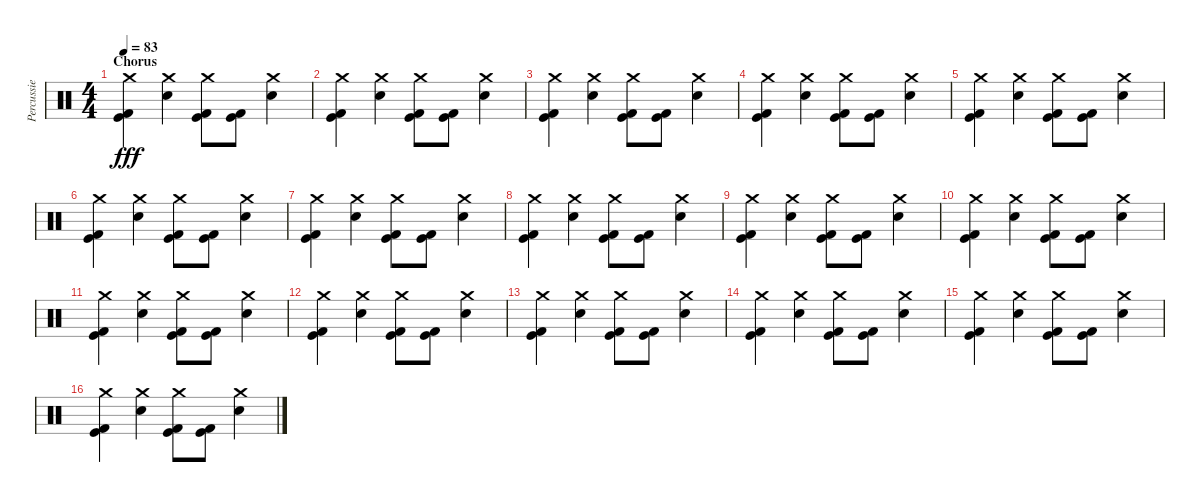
\track ("Percussie" "Percussie") {instrument percussion}
\staff {score}
\articulation defaults
\ts (4 4)
\section ("" "Chorus")
\tempo 83
\clef neutral
\ks c
("Crash medium (hit)" "Kick (hit)" "Kick (hit) 2").4{dy fff} ("Crash medium (hit)" "Snare (hit) 2").4 ("Crash medium (hit)" "Kick (hit)" "Kick (hit) 2").8 ("Kick (hit)" "Kick (hit) 2").8 ("Crash medium (hit)" "Snare (hit) 2").4 |
("Crash medium (hit)" "Kick (hit)" "Kick (hit) 2").4 ("Crash medium (hit)" "Snare (hit) 2").4 ("Crash medium (hit)" "Kick (hit)" "Kick (hit) 2").8 ("Kick (hit)" "Kick (hit) 2").8 ("Crash medium (hit)" "Snare (hit) 2").4 |
("Crash medium (hit)" "Kick (hit)" "Kick (hit) 2").4 ("Crash medium (hit)" "Snare (hit) 2").4 ("Crash medium (hit)" "Kick (hit)" "Kick (hit) 2").8 ("Kick (hit)" "Kick (hit) 2").8 ("Crash medium (hit)" "Snare (hit) 2").4 |
("Crash medium (hit)" "Kick (hit)" "Kick (hit) 2").4 ("Crash medium (hit)" "Snare (hit) 2").4 ("Crash medium (hit)" "Kick (hit)" "Kick (hit) 2").8 ("Kick (hit)" "Kick (hit) 2").8 ("Crash medium (hit)" "Snare (hit) 2").4 |
("Crash medium (hit)" "Kick (hit)" "Kick (hit) 2").4 ("Crash medium (hit)" "Snare (hit) 2").4 ("Crash medium (hit)" "Kick (hit)" "Kick (hit) 2").8 ("Kick (hit)" "Kick (hit) 2").8 ("Crash medium (hit)" "Snare (hit) 2").4 |
("Crash medium (hit)" "Kick (hit)" "Kick (hit) 2").4 ("Crash medium (hit)" "Snare (hit) 2").4 ("Crash medium (hit)" "Kick (hit)" "Kick (hit) 2").8 ("Kick (hit)" "Kick (hit) 2").8 ("Crash medium (hit)" "Snare (hit) 2").4 |
("Crash medium (hit)" "Kick (hit)" "Kick (hit) 2").4 ("Crash medium (hit)" "Snare (hit) 2").4 ("Crash medium (hit)" "Kick (hit)" "Kick (hit) 2").8 ("Kick (hit)" "Kick (hit) 2").8 ("Crash medium (hit)" "Snare (hit) 2").4 |
("Crash medium (hit)" "Kick (hit)" "Kick (hit) 2").4 ("Crash medium (hit)" "Snare (hit) 2").4 ("Crash medium (hit)" "Kick (hit)" "Kick (hit) 2").8 ("Kick (hit)" "Kick (hit) 2").8 ("Crash medium (hit)" "Snare (hit) 2").4 |
("Crash medium (hit)" "Kick (hit)" "Kick (hit) 2").4 ("Crash medium (hit)" "Snare (hit) 2").4 ("Crash medium (hit)" "Kick (hit)" "Kick (hit) 2").8 ("Kick (hit)" "Kick (hit) 2").8 ("Crash medium (hit)" "Snare (hit) 2").4 |
("Crash medium (hit)" "Kick (hit)" "Kick (hit) 2").4 ("Crash medium (hit)" "Snare (hit) 2").4 ("Crash medium (hit)" "Kick (hit)" "Kick (hit) 2").8 ("Kick (hit)" "Kick (hit) 2").8 ("Crash medium (hit)" "Snare (hit) 2").4 |
("Crash medium (hit)" "Kick (hit)" "Kick (hit) 2").4 ("Crash medium (hit)" "Snare (hit) 2").4 ("Crash medium (hit)" "Kick (hit)" "Kick (hit) 2").8 ("Kick (hit)" "Kick (hit) 2").8 ("Crash medium (hit)" "Snare (hit) 2").4 |
("Crash medium (hit)" "Kick (hit)" "Kick (hit) 2").4 ("Crash medium (hit)" "Snare (hit) 2").4 ("Crash medium (hit)" "Kick (hit)" "Kick (hit) 2").8 ("Kick (hit)" "Kick (hit) 2").8 ("Crash medium (hit)" "Snare (hit) 2").4 |
("Crash medium (hit)" "Kick (hit)" "Kick (hit) 2").4 ("Crash medium (hit)" "Snare (hit) 2").4 ("Crash medium (hit)" "Kick (hit)" "Kick (hit) 2").8 ("Kick (hit)" "Kick (hit) 2").8 ("Crash medium (hit)" "Snare (hit) 2").4 |
("Crash medium (hit)" "Kick (hit)" "Kick (hit) 2").4 ("Crash medium (hit)" "Snare (hit) 2").4 ("Crash medium (hit)" "Kick (hit)" "Kick (hit) 2").8 ("Kick (hit)" "Kick (hit) 2").8 ("Crash medium (hit)" "Snare (hit) 2").4 |
("Crash medium (hit)" "Kick (hit)" "Kick (hit) 2").4 ("Crash medium (hit)" "Snare (hit) 2").4 ("Crash medium (hit)" "Kick (hit)" "Kick (hit) 2").8 ("Kick (hit)" "Kick (hit) 2").8 ("Crash medium (hit)" "Snare (hit) 2").4 |
("Crash medium (hit)" "Kick (hit)" "Kick (hit) 2").4 ("Crash medium (hit)" "Snare (hit) 2").4 ("Crash medium (hit)" "Kick (hit)" "Kick (hit) 2").8 ("Kick (hit)" "Kick (hit) 2").8 ("Crash medium (hit)" "Snare (hit) 2").4
